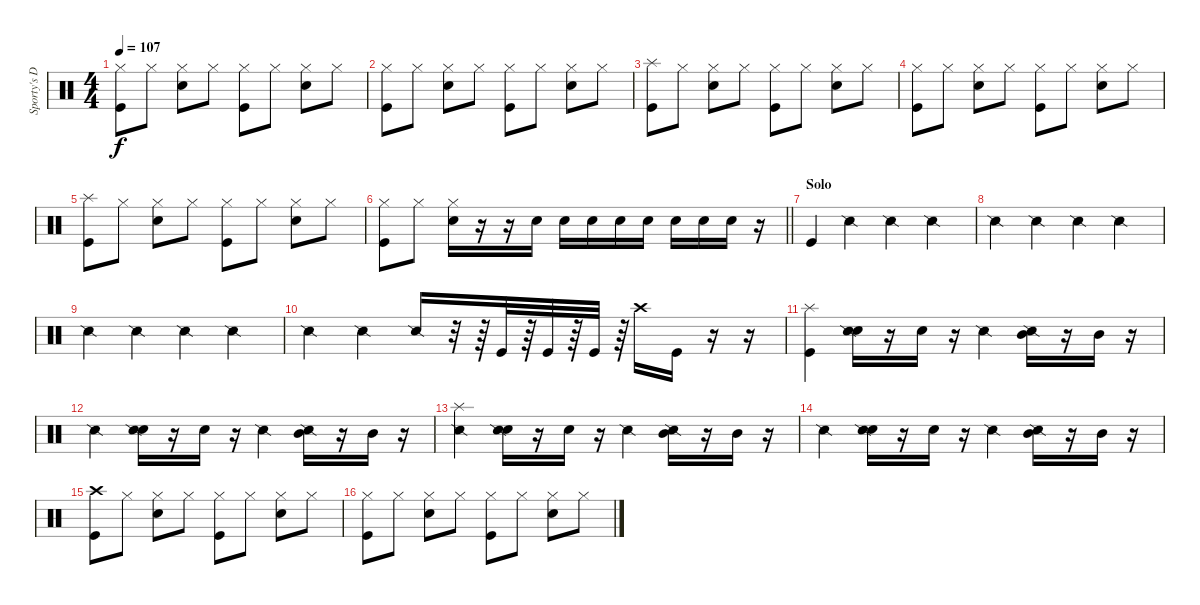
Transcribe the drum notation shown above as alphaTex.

\track ("Sporty's Drums" "Sporty's D") {instrument percussion}
\staff {score}
\articulation defaults
\ts (4 4)
\tempo 107
\clef neutral
\ks c
("Hi-Hat (closed)" "Kick (hit)").8{dy f} "Hi-Hat (closed)".8 ("Hi-Hat (closed)" "Electric Snare (hit)").8 "Hi-Hat (closed)".8 ("Hi-Hat (closed)" "Kick (hit)").8 "Hi-Hat (closed)".8 ("Hi-Hat (closed)" "Electric Snare (hit)").8 "Hi-Hat (closed)".8 |
("Hi-Hat (closed)" "Kick (hit)").8 "Hi-Hat (closed)".8 ("Hi-Hat (closed)" "Electric Snare (hit)").8 "Hi-Hat (closed)".8 ("Hi-Hat (closed)" "Kick (hit)").8 "Hi-Hat (closed)".8 ("Hi-Hat (closed)" "Electric Snare (hit)").8 "Hi-Hat (closed)".8 |
("Splash (hit)" "Kick (hit)").8 "Hi-Hat (closed)".8 ("Hi-Hat (closed)" "Electric Snare (hit)").8 "Hi-Hat (closed)".8 ("Hi-Hat (closed)" "Kick (hit)").8 "Hi-Hat (closed)".8 ("Hi-Hat (closed)" "Electric Snare (hit)").8 "Hi-Hat (closed)".8 |
("Hi-Hat (closed)" "Kick (hit)").8 "Hi-Hat (closed)".8 ("Hi-Hat (closed)" "Electric Snare (hit)").8 "Hi-Hat (closed)".8 ("Hi-Hat (closed)" "Kick (hit)").8 "Hi-Hat (closed)".8 ("Hi-Hat (closed)" "Electric Snare (hit)").8 "Hi-Hat (closed)".8 |
("Splash (hit)" "Kick (hit)").8 "Hi-Hat (closed)".8 ("Hi-Hat (closed)" "Electric Snare (hit)").8 "Hi-Hat (closed)".8 ("Hi-Hat (closed)" "Kick (hit)").8 "Hi-Hat (closed)".8 ("Hi-Hat (closed)" "Electric Snare (hit)").8 "Hi-Hat (closed)".8 |
\barLineRight lightlight
("Hi-Hat (closed)" "Kick (hit)").8 "Hi-Hat (closed)".8 ("Hi-Hat (closed)" "Electric Snare (hit)").16 r.16 r.16 "Electric Snare (hit)".16 "Electric Snare (hit)".16 "Electric Snare (hit)".16 "Electric Snare (hit)".16 "Electric Snare (hit)".16 "Electric Snare (hit)".16 "Electric Snare (hit)".16 "Electric Snare (hit)".16 r.16 |
\section ("" "Solo")
"Kick (hit)".4 "Snare (side stick) 2".4 "Snare (side stick) 2".4 "Snare (side stick) 2".4 |
"Snare (side stick) 2".4 "Snare (side stick) 2".4 "Snare (side stick) 2".4 "Snare (side stick) 2".4 |
"Snare (side stick) 2".4 "Snare (side stick) 2".4 "Snare (side stick) 2".4 "Snare (side stick) 2".4 |
"Snare (side stick) 2".4 "Snare (side stick) 2".4 "Snare (side stick) 2".16 r.32 r.64 "Kick (hit)".32 r.64 "Kick (hit)".32 r.64 "Kick (hit)".32 r.64 "Crash high (hit)".16 "Kick (hit)".16 r.16 r.16 |
("Splash (hit)" "Kick (hit)").4 ("Electric Snare (hit)" "Snare (side stick) 2").16 r.16 "Electric Snare (hit)".16 r.16 "Snare (side stick) 2".4 ("Mid Tom (hit)" "Snare (side stick) 2").16 r.16 "Mid Tom (hit)".16 r.16 |
"Snare (side stick) 2".4 ("Electric Snare (hit)" "Snare (side stick) 2").16 r.16 "Electric Snare (hit)".16 r.16 "Snare (side stick) 2".4 ("Mid Tom (hit)" "Snare (side stick) 2").16 r.16 "Mid Tom (hit)".16 r.16 |
("Splash (hit)" "Snare (side stick) 2").4 ("Electric Snare (hit)" "Snare (side stick) 2").16 r.16 "Electric Snare (hit)".16 r.16 "Snare (side stick) 2".4 ("Mid Tom (hit)" "Snare (side stick) 2").16 r.16 "Mid Tom (hit)".16 r.16 |
"Snare (side stick) 2".4 ("Electric Snare (hit)" "Snare (side stick) 2").16 r.16 "Electric Snare (hit)".16 r.16 "Snare (side stick) 2".4 ("Mid Tom (hit)" "Snare (side stick) 2").16 r.16 "Mid Tom (hit)".16 r.16 |
("Crash high (hit)" "Kick (hit)").8 "Hi-Hat (closed)".8 ("Hi-Hat (closed)" "Electric Snare (hit)").8 "Hi-Hat (closed)".8 ("Hi-Hat (closed)" "Kick (hit)").8 "Hi-Hat (closed)".8 ("Hi-Hat (closed)" "Electric Snare (hit)").8 "Hi-Hat (closed)".8 |
("Hi-Hat (closed)" "Kick (hit)").8 "Hi-Hat (closed)".8 ("Hi-Hat (closed)" "Electric Snare (hit)").8 "Hi-Hat (closed)".8 ("Hi-Hat (closed)" "Kick (hit)").8 "Hi-Hat (closed)".8 ("Hi-Hat (closed)" "Electric Snare (hit)").8 "Hi-Hat (closed)".8
